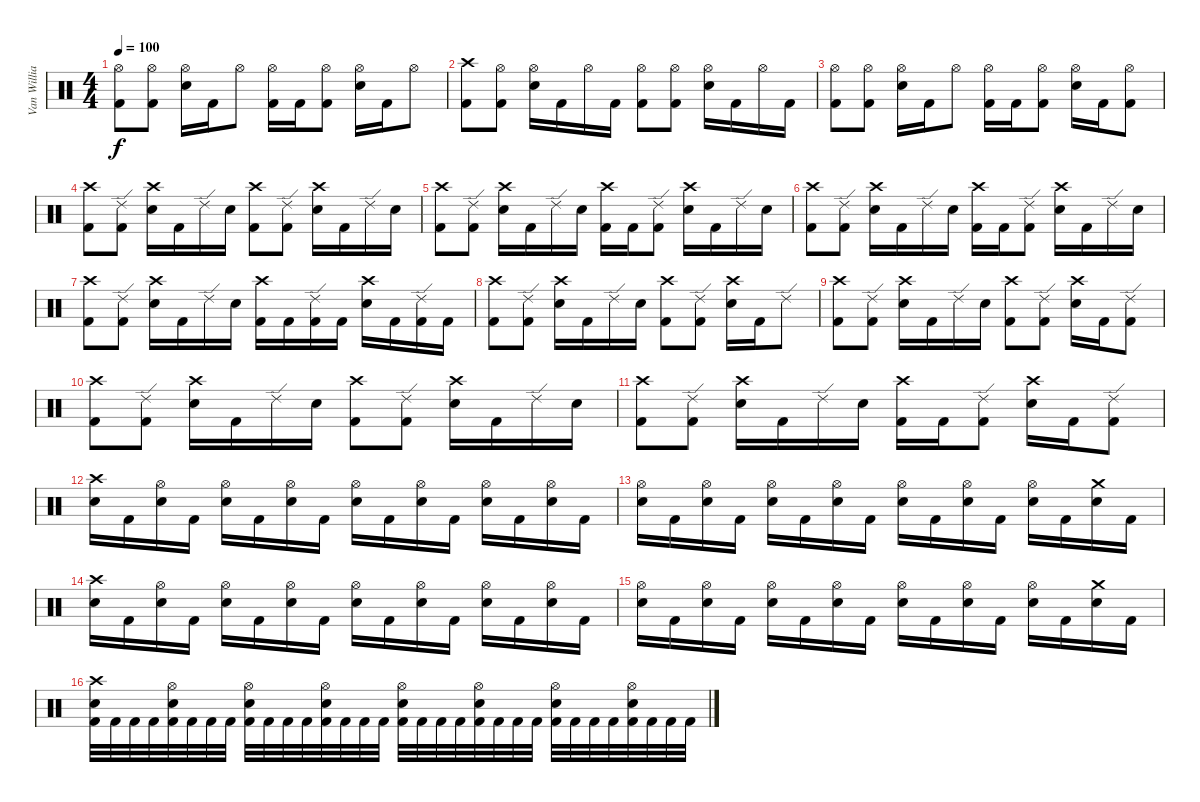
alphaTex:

\track ("Van Williams" "Van Willia") {instrument percussion}
\staff {score}
\articulation defaults
\ts (4 4)
\tempo 100
\clef neutral
\ks c
("Hi-Hat (open)" "Kick (hit) 2").8{dy f} ("Hi-Hat (open)" "Kick (hit) 2").8 ("Hi-Hat (open)" "Electric Snare (hit)").16 "Kick (hit) 2".16 "Hi-Hat (open)".8 ("Hi-Hat (open)" "Kick (hit) 2").16 "Kick (hit) 2".16 ("Hi-Hat (open)" "Kick (hit) 2").8 ("Hi-Hat (open)" "Electric Snare (hit)").16 "Kick (hit) 2".16 "Hi-Hat (open)".8 |
("Crash high (hit)" "Kick (hit) 2").8 ("Hi-Hat (open)" "Kick (hit) 2").8 ("Hi-Hat (open)" "Electric Snare (hit)").16 "Kick (hit) 2".16 "Hi-Hat (open)".16 "Kick (hit) 2".16 ("Hi-Hat (open)" "Kick (hit) 2").8 ("Hi-Hat (open)" "Kick (hit) 2").8 ("Hi-Hat (open)" "Electric Snare (hit)").16 "Kick (hit) 2".16 "Hi-Hat (open)".16 "Kick (hit) 2".16 |
("Hi-Hat (open)" "Kick (hit) 2").8 ("Hi-Hat (open)" "Kick (hit) 2").8 ("Hi-Hat (open)" "Electric Snare (hit)").16 "Kick (hit) 2".16 "Hi-Hat (open)".8 ("Hi-Hat (open)" "Kick (hit) 2").16 "Kick (hit) 2".16 ("Hi-Hat (open)" "Kick (hit) 2").8 ("Hi-Hat (open)" "Electric Snare (hit)").16 "Kick (hit) 2".16 ("Hi-Hat (open)" "Kick (hit) 2").8 |
("Crash high (hit)" "Kick (hit) 2").8 ("Ride (edge) 2" "Kick (hit) 2").8 ("Crash high (hit)" "Electric Snare (hit)").16 "Kick (hit) 2".16 "Ride (edge) 2".16 "Electric Snare (hit)".16 ("Crash high (hit)" "Kick (hit) 2").8 ("Ride (edge) 2" "Kick (hit) 2").8 ("Crash high (hit)" "Electric Snare (hit)").16 "Kick (hit) 2".16 "Ride (edge) 2".16 "Electric Snare (hit)".16 |
("Crash high (hit)" "Kick (hit) 2").8 ("Ride (edge) 2" "Kick (hit) 2").8 ("Crash high (hit)" "Electric Snare (hit)").16 "Kick (hit) 2".16 "Ride (edge) 2".16 "Electric Snare (hit)".16 ("Crash high (hit)" "Kick (hit) 2").16 "Kick (hit) 2".16 ("Ride (edge) 2" "Kick (hit) 2").8 ("Crash high (hit)" "Electric Snare (hit)").16 "Kick (hit) 2".16 "Ride (edge) 2".16 "Electric Snare (hit)".16 |
("Crash high (hit)" "Kick (hit) 2").8 ("Ride (edge) 2" "Kick (hit) 2").8 ("Crash high (hit)" "Electric Snare (hit)").16 "Kick (hit) 2".16 "Ride (edge) 2".16 "Electric Snare (hit)".16 ("Crash high (hit)" "Kick (hit) 2").16 "Kick (hit) 2".16 ("Ride (edge) 2" "Kick (hit) 2").8 ("Crash high (hit)" "Electric Snare (hit)").16 "Kick (hit) 2".16 "Ride (edge) 2".16 "Electric Snare (hit)".16 |
("Crash high (hit)" "Kick (hit) 2").8 ("Ride (edge) 2" "Kick (hit) 2").8 ("Crash high (hit)" "Electric Snare (hit)").16 "Kick (hit) 2".16 "Ride (edge) 2".16 "Electric Snare (hit)".16 ("Crash high (hit)" "Kick (hit) 2").16 "Kick (hit) 2".16 ("Ride (edge) 2" "Kick (hit) 2").16 "Kick (hit) 2".16 ("Crash high (hit)" "Electric Snare (hit)").16 "Kick (hit) 2".16 ("Ride (edge) 2" "Kick (hit) 2").16 "Kick (hit) 2".16 |
("Crash high (hit)" "Kick (hit) 2").8 ("Ride (edge) 2" "Kick (hit) 2").8 ("Crash high (hit)" "Electric Snare (hit)").16 "Kick (hit) 2".16 "Ride (edge) 2".16 "Electric Snare (hit)".16 ("Crash high (hit)" "Kick (hit) 2").8 ("Ride (edge) 2" "Kick (hit) 2").8 ("Crash high (hit)" "Electric Snare (hit)").16 "Kick (hit) 2".16 "Ride (edge) 2".8 |
("Crash high (hit)" "Kick (hit) 2").8 ("Ride (edge) 2" "Kick (hit) 2").8 ("Crash high (hit)" "Electric Snare (hit)").16 "Kick (hit) 2".16 "Ride (edge) 2".16 "Electric Snare (hit)".16 ("Crash high (hit)" "Kick (hit) 2").8 ("Ride (edge) 2" "Kick (hit) 2").8 ("Crash high (hit)" "Electric Snare (hit)").16 "Kick (hit) 2".16 ("Ride (edge) 2" "Kick (hit) 2").8 |
("Crash high (hit)" "Kick (hit) 2").8 ("Ride (edge) 2" "Kick (hit) 2").8 ("Crash high (hit)" "Electric Snare (hit)").16 "Kick (hit) 2".16 "Ride (edge) 2".16 "Electric Snare (hit)".16 ("Crash high (hit)" "Kick (hit) 2").8 ("Ride (edge) 2" "Kick (hit) 2").8 ("Crash high (hit)" "Electric Snare (hit)").16 "Kick (hit) 2".16 "Ride (edge) 2".16 "Electric Snare (hit)".16 |
("Crash high (hit)" "Kick (hit) 2").8 ("Ride (edge) 2" "Kick (hit) 2").8 ("Crash high (hit)" "Electric Snare (hit)").16 "Kick (hit) 2".16 "Ride (edge) 2".16 "Electric Snare (hit)".16 ("Crash high (hit)" "Kick (hit) 2").16 "Kick (hit) 2".16 ("Ride (edge) 2" "Kick (hit) 2").8 ("Crash high (hit)" "Electric Snare (hit)").16 "Kick (hit) 2".16 ("Ride (edge) 2" "Kick (hit) 2").8 |
("Crash high (hit)" "Electric Snare (hit)").16 "Kick (hit) 2".16 ("Hi-Hat (open)" "Electric Snare (hit)").16 "Kick (hit) 2".16 ("Hi-Hat (open)" "Electric Snare (hit)").16 "Kick (hit) 2".16 ("Hi-Hat (open)" "Electric Snare (hit)").16 "Kick (hit) 2".16 ("Hi-Hat (open)" "Electric Snare (hit)").16 "Kick (hit) 2".16 ("Hi-Hat (open)" "Electric Snare (hit)").16 "Kick (hit) 2".16 ("Hi-Hat (open)" "Electric Snare (hit)").16 "Kick (hit) 2".16 ("Hi-Hat (open)" "Electric Snare (hit)").16 "Kick (hit) 2".16 |
("Hi-Hat (open)" "Electric Snare (hit)").16 "Kick (hit) 2".16 ("Hi-Hat (open)" "Electric Snare (hit)").16 "Kick (hit) 2".16 ("Hi-Hat (open)" "Electric Snare (hit)").16 "Kick (hit) 2".16 ("Hi-Hat (open)" "Electric Snare (hit)").16 "Kick (hit) 2".16 ("Hi-Hat (open)" "Electric Snare (hit)").16 "Kick (hit) 2".16 ("Hi-Hat (open)" "Electric Snare (hit)").16 "Kick (hit) 2".16 ("Hi-Hat (open)" "Electric Snare (hit)").16 "Kick (hit) 2".16 ("Crash medium (hit)" "Electric Snare (hit)").16 "Kick (hit) 2".16 |
("Crash high (hit)" "Electric Snare (hit)").16 "Kick (hit) 2".16 ("Hi-Hat (open)" "Electric Snare (hit)").16 "Kick (hit) 2".16 ("Hi-Hat (open)" "Electric Snare (hit)").16 "Kick (hit) 2".16 ("Hi-Hat (open)" "Electric Snare (hit)").16 "Kick (hit) 2".16 ("Hi-Hat (open)" "Electric Snare (hit)").16 "Kick (hit) 2".16 ("Hi-Hat (open)" "Electric Snare (hit)").16 "Kick (hit) 2".16 ("Hi-Hat (open)" "Electric Snare (hit)").16 "Kick (hit) 2".16 ("Hi-Hat (open)" "Electric Snare (hit)").16 "Kick (hit) 2".16 |
("Hi-Hat (open)" "Electric Snare (hit)").16 "Kick (hit) 2".16 ("Hi-Hat (open)" "Electric Snare (hit)").16 "Kick (hit) 2".16 ("Hi-Hat (open)" "Electric Snare (hit)").16 "Kick (hit) 2".16 ("Hi-Hat (open)" "Electric Snare (hit)").16 "Kick (hit) 2".16 ("Hi-Hat (open)" "Electric Snare (hit)").16 "Kick (hit) 2".16 ("Hi-Hat (open)" "Electric Snare (hit)").16 "Kick (hit) 2".16 ("Hi-Hat (open)" "Electric Snare (hit)").16 "Kick (hit) 2".16 ("Crash medium (hit)" "Electric Snare (hit)").16 "Kick (hit) 2".16 |
("Crash high (hit)" "Kick (hit) 2" "Electric Snare (hit)").32 "Kick (hit) 2".32 "Kick (hit) 2".32 "Kick (hit) 2".32 ("Hi-Hat (open)" "Kick (hit) 2" "Electric Snare (hit)").32 "Kick (hit) 2".32 "Kick (hit) 2".32 "Kick (hit) 2".32 ("Hi-Hat (open)" "Kick (hit) 2" "Electric Snare (hit)").32 "Kick (hit) 2".32 "Kick (hit) 2".32 "Kick (hit) 2".32 ("Hi-Hat (open)" "Kick (hit) 2" "Electric Snare (hit)").32 "Kick (hit) 2".32 "Kick (hit) 2".32 "Kick (hit) 2".32 ("Hi-Hat (open)" "Kick (hit) 2" "Electric Snare (hit)").32 "Kick (hit) 2".32 "Kick (hit) 2".32 "Kick (hit) 2".32 ("Hi-Hat (open)" "Kick (hit) 2" "Electric Snare (hit)").32 "Kick (hit) 2".32 "Kick (hit) 2".32 "Kick (hit) 2".32 ("Hi-Hat (open)" "Kick (hit) 2" "Electric Snare (hit)").32 "Kick (hit) 2".32 "Kick (hit) 2".32 "Kick (hit) 2".32 ("Hi-Hat (open)" "Kick (hit) 2" "Electric Snare (hit)").32 "Kick (hit) 2".32 "Kick (hit) 2".32 "Kick (hit) 2".32
